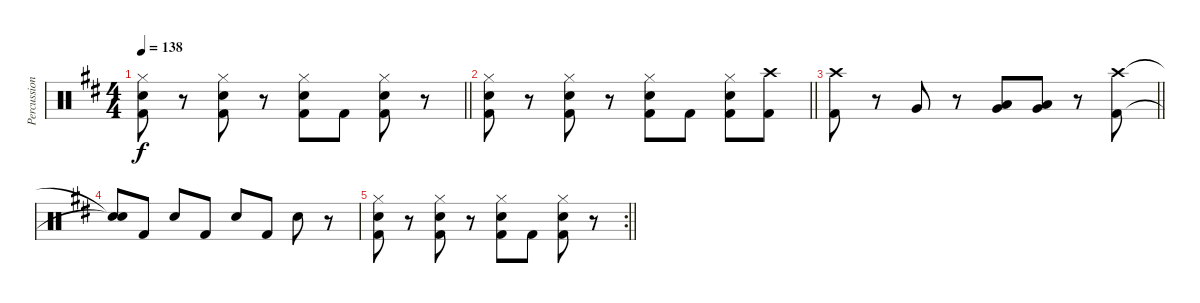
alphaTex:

\track ("Percussion" "Percussion") {instrument percussion}
\staff {score}
\articulation defaults
\ts (4 4)
\tempo 138
\clef neutral
\barLineRight lightlight
\ks d
("Hi-Hat (closed)" "Snare (hit) 2" "Kick (hit) 2").8{dy f} r.8 ("Hi-Hat (closed)" "Snare (hit) 2" "Kick (hit) 2").8 r.8 ("Hi-Hat (closed)" "Snare (hit) 2" "Kick (hit) 2").8 "Kick (hit) 2".8 ("Hi-Hat (closed)" "Snare (hit) 2" "Kick (hit) 2").8 r.8 |
\barLineRight lightlight
("Hi-Hat (closed)" "Snare (hit) 2" "Kick (hit) 2").8 r.8 ("Hi-Hat (closed)" "Snare (hit) 2" "Kick (hit) 2").8 r.8 ("Hi-Hat (closed)" "Snare (hit) 2" "Kick (hit) 2").8 "Kick (hit) 2".8 ("Hi-Hat (closed)" "Snare (hit) 2" "Kick (hit) 2").8 ("Crash high (hit)" "Kick (hit) 2").8 |
\barLineRight lightlight
("Crash high (hit)" "Kick (hit) 2").8 r.8 "Very Low Tom (hit)".8 r.8 ("Very Low Tom (hit)" "Low Floor Tom (hit)").8 ("Very Low Tom (hit)" "Low Floor Tom (hit)").8 r.8 ("Crash high (hit)" "Kick (hit) 2").8 |
("Snare (hit)"{t} "Snare (hit)"{t}).8 "Kick (hit) 2".8 "Snare (hit) 2".8 "Kick (hit) 2".8 "Snare (hit) 2".8 "Kick (hit) 2".8 "Snare (hit) 2".8 r.8 |
\rc 2
\barLineRight lightlight
("Hi-Hat (closed)" "Snare (hit) 2" "Kick (hit) 2").8 r.8 ("Hi-Hat (closed)" "Snare (hit) 2" "Kick (hit) 2").8 r.8 ("Hi-Hat (closed)" "Snare (hit) 2" "Kick (hit) 2").8 "Kick (hit) 2".8 ("Hi-Hat (closed)" "Snare (hit) 2" "Kick (hit) 2").8 r.8
